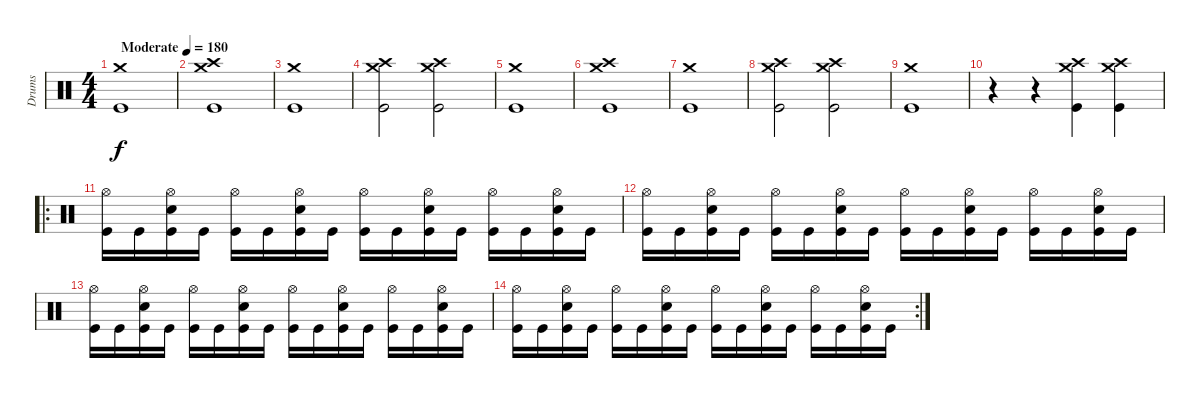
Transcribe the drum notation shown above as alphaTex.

\track ("Drums" "Drums") {instrument percussion}
\staff {score}
\articulation defaults
\ts (4 4)
\tempo (180 "Moderate")
\clef neutral
\ks c
("Crash medium (hit)" "Kick (hit)").1{dy f} |
("Crash high (hit)" "Crash medium (hit)" "Kick (hit)").1 |
("Crash medium (hit)" "Kick (hit)").1 |
("Crash high (hit)" "Crash medium (hit)" "Kick (hit)").2 ("Crash high (hit)" "Crash medium (hit)" "Kick (hit)").2 |
("Crash medium (hit)" "Kick (hit)").1 |
("Crash high (hit)" "Crash medium (hit)" "Kick (hit)").1 |
("Crash medium (hit)" "Kick (hit)").1 |
("Crash high (hit)" "Crash medium (hit)" "Kick (hit)").2 ("Crash high (hit)" "Crash medium (hit)" "Kick (hit)").2 |
("Crash medium (hit)" "Kick (hit)").1 |
r.4 r.4 ("Crash medium (hit)" "Crash high (hit)" "Kick (hit)").4 ("Crash medium (hit)" "Crash high (hit)" "Kick (hit)").4 |
\ro
("Hi-Hat (open)" "Kick (hit)").16 "Kick (hit)".16 ("Hi-Hat (open)" "Snare (hit) 2" "Kick (hit)").16 "Kick (hit)".16 ("Hi-Hat (open)" "Kick (hit)").16 "Kick (hit)".16 ("Hi-Hat (open)" "Snare (hit) 2" "Kick (hit)").16 "Kick (hit)".16 ("Hi-Hat (open)" "Kick (hit)").16 "Kick (hit)".16 ("Hi-Hat (open)" "Snare (hit) 2" "Kick (hit)").16 "Kick (hit)".16 ("Hi-Hat (open)" "Kick (hit)").16 "Kick (hit)".16 ("Hi-Hat (open)" "Snare (hit) 2" "Kick (hit)").16 "Kick (hit)".16 |
("Hi-Hat (open)" "Kick (hit)").16 "Kick (hit)".16 ("Hi-Hat (open)" "Snare (hit) 2" "Kick (hit)").16 "Kick (hit)".16 ("Hi-Hat (open)" "Kick (hit)").16 "Kick (hit)".16 ("Hi-Hat (open)" "Snare (hit) 2" "Kick (hit)").16 "Kick (hit)".16 ("Hi-Hat (open)" "Kick (hit)").16 "Kick (hit)".16 ("Hi-Hat (open)" "Snare (hit) 2" "Kick (hit)").16 "Kick (hit)".16 ("Hi-Hat (open)" "Kick (hit)").16 "Kick (hit)".16 ("Hi-Hat (open)" "Snare (hit) 2" "Kick (hit)").16 "Kick (hit)".16 |
("Hi-Hat (open)" "Kick (hit)").16 "Kick (hit)".16 ("Hi-Hat (open)" "Snare (hit) 2" "Kick (hit)").16 "Kick (hit)".16 ("Hi-Hat (open)" "Kick (hit)").16 "Kick (hit)".16 ("Hi-Hat (open)" "Snare (hit) 2" "Kick (hit)").16 "Kick (hit)".16 ("Hi-Hat (open)" "Kick (hit)").16 "Kick (hit)".16 ("Hi-Hat (open)" "Snare (hit) 2" "Kick (hit)").16 "Kick (hit)".16 ("Hi-Hat (open)" "Kick (hit)").16 "Kick (hit)".16 ("Hi-Hat (open)" "Snare (hit) 2" "Kick (hit)").16 "Kick (hit)".16 |
\rc 2
("Hi-Hat (open)" "Kick (hit)").16 "Kick (hit)".16 ("Hi-Hat (open)" "Snare (hit) 2" "Kick (hit)").16 "Kick (hit)".16 ("Hi-Hat (open)" "Kick (hit)").16 "Kick (hit)".16 ("Hi-Hat (open)" "Snare (hit) 2" "Kick (hit)").16 "Kick (hit)".16 ("Hi-Hat (open)" "Kick (hit)").16 "Kick (hit)".16 ("Hi-Hat (open)" "Snare (hit) 2" "Kick (hit)").16 "Kick (hit)".16 ("Hi-Hat (open)" "Kick (hit)").16 "Kick (hit)".16 ("Hi-Hat (open)" "Snare (hit) 2" "Kick (hit)").16 "Kick (hit)".16
